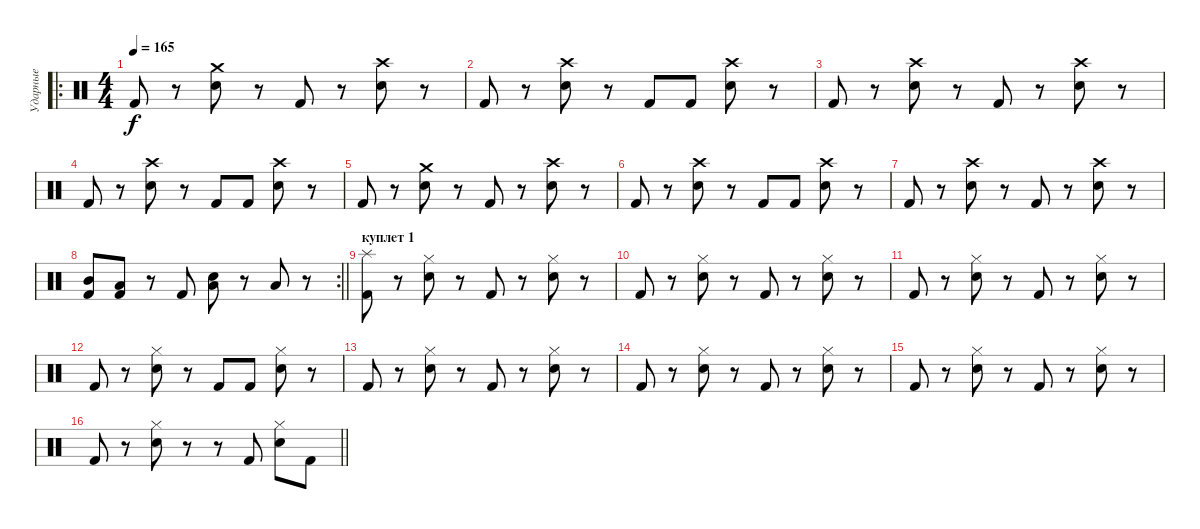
\track ("Ударные" "Ударные") {instrument percussion}
\staff {score}
\articulation defaults
\ro
\ts (4 4)
\tempo 165
\clef neutral
\ks c "Kick (hit) 2".8{dy f}
r.8 ("Crash medium (hit)" "Snare (hit) 2").8 r.8 "Kick (hit) 2".8 r.8 ("Crash high (hit)" "Snare (hit) 2").8 r.8 |
"Kick (hit) 2".8 r.8 ("Crash high (hit)" "Snare (hit) 2").8 r.8 "Kick (hit) 2".8 "Kick (hit) 2".8 ("Crash high (hit)" "Snare (hit) 2").8 r.8 |
"Kick (hit) 2".8 r.8 ("Crash high (hit)" "Snare (hit) 2").8 r.8 "Kick (hit) 2".8 r.8 ("Crash high (hit)" "Snare (hit) 2").8 r.8 |
"Kick (hit) 2".8 r.8 ("Crash high (hit)" "Snare (hit) 2").8 r.8 "Kick (hit) 2".8 "Kick (hit) 2".8 ("Crash high (hit)" "Snare (hit) 2").8 r.8 |
"Kick (hit) 2".8 r.8 ("Crash medium (hit)" "Snare (hit) 2").8 r.8 "Kick (hit) 2".8 r.8 ("Crash high (hit)" "Snare (hit) 2").8 r.8 |
"Kick (hit) 2".8 r.8 ("Crash high (hit)" "Snare (hit) 2").8 r.8 "Kick (hit) 2".8 "Kick (hit) 2".8 ("Crash high (hit)" "Snare (hit) 2").8 r.8 |
"Kick (hit) 2".8 r.8 ("Crash high (hit)" "Snare (hit) 2").8 r.8 "Kick (hit) 2".8 r.8 ("Crash high (hit)" "Snare (hit) 2").8 r.8 |
\rc 2
\barLineRight lightlight
("Mid Tom (hit)" "Kick (hit) 2").8 ("Low Tom (hit)" "Kick (hit) 2").8 r.8 "Kick (hit) 2".8 ("Low Floor Tom (hit)" "Snare (hit) 2").8 r.8 "Low Tom (hit)".8 r.8 |
\section ("" "куплет 1")
("Splash (hit)" "Kick (hit) 2").8 r.8 ("Hi-Hat (closed)" "Snare (hit) 2").8 r.8 "Kick (hit) 2".8 r.8 ("Hi-Hat (closed)" "Snare (hit) 2").8 r.8 |
"Kick (hit) 2".8 r.8 ("Hi-Hat (closed)" "Snare (hit) 2").8 r.8 "Kick (hit) 2".8 r.8 ("Hi-Hat (closed)" "Snare (hit) 2").8 r.8 |
"Kick (hit) 2".8 r.8 ("Hi-Hat (closed)" "Snare (hit) 2").8 r.8 "Kick (hit) 2".8 r.8 ("Hi-Hat (closed)" "Snare (hit) 2").8 r.8 |
"Kick (hit) 2".8 r.8 ("Hi-Hat (closed)" "Snare (hit) 2").8 r.8 "Kick (hit) 2".8 "Kick (hit) 2".8 ("Hi-Hat (closed)" "Snare (hit) 2").8 r.8 |
"Kick (hit) 2".8 r.8 ("Hi-Hat (closed)" "Snare (hit) 2").8 r.8 "Kick (hit) 2".8 r.8 ("Hi-Hat (closed)" "Snare (hit) 2").8 r.8 |
"Kick (hit) 2".8 r.8 ("Hi-Hat (closed)" "Snare (hit) 2").8 r.8 "Kick (hit) 2".8 r.8 ("Hi-Hat (closed)" "Snare (hit) 2").8 r.8 |
"Kick (hit) 2".8 r.8 ("Hi-Hat (closed)" "Snare (hit) 2").8 r.8 "Kick (hit) 2".8 r.8 ("Hi-Hat (closed)" "Snare (hit) 2").8 r.8 |
\barLineRight lightlight "Kick (hit) 2".8
r.8 ("Hi-Hat (closed)" "Snare (hit) 2").8 r.8 r.8 "Kick (hit) 2".8 ("Hi-Hat (closed)" "Snare (hit) 2").8 "Kick (hit) 2".8
